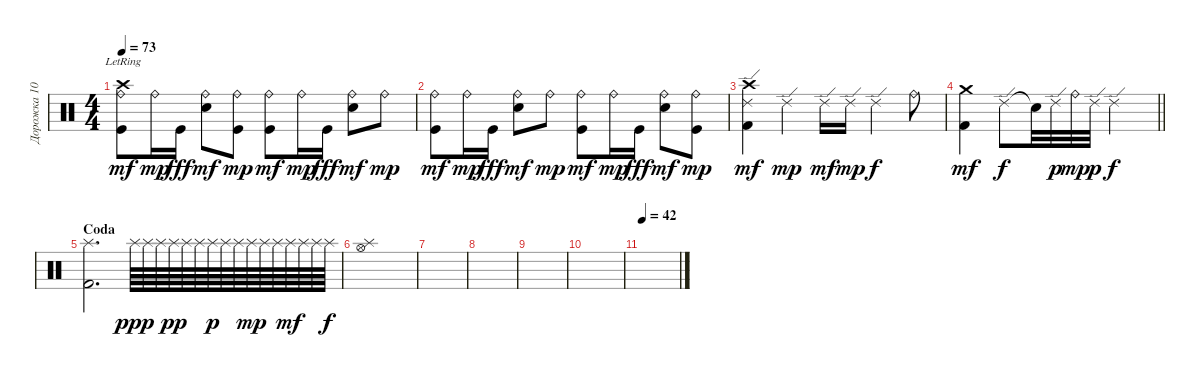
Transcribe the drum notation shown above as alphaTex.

\track ("Дорожка 10" "Дорожка 10") {instrument percussion}
\staff {score}
\articulation defaults
\ts (4 4)
\tempo 73
\clef neutral
\ks c
("Crash high (hit)"{lr} "Kick (hit)" "Ride (bell)").8{dy mf} "Ride (bell)".16{dy mp} "Kick (hit)".16{dy fff} ("Snare (hit) 2" "Ride (bell)").8{dy mf} ("Kick (hit)" "Ride (bell)").8{dy mp} ("Kick (hit)" "Ride (bell)").8{dy mf} "Ride (bell)".16{dy mp} "Kick (hit)".16{dy fff} ("Snare (hit) 2" "Ride (bell)").8{dy mf} "Ride (bell)".8{dy mp} |
("Kick (hit)" "Ride (bell)").8{dy mf} "Ride (bell)".16{dy mp} "Kick (hit)".16{dy fff} ("Snare (hit) 2" "Ride (bell)").8{dy mf} "Ride (bell)".8{dy mp} ("Kick (hit)" "Ride (bell)").8{dy mf} "Ride (bell)".16{dy mp} "Kick (hit)".16{dy fff} ("Snare (hit) 2" "Ride (bell)").8{dy mf} ("Kick (hit)" "Ride (bell)").8{dy mp} |
("Crash high (hit)" "Kick (hit) 2" "Ride (edge) 2").4{dy mf} "Ride (edge) 2".4{dy mp} "Ride (edge) 2".16{dy mf} "Ride (edge) 2".16{dy mp} "Ride (edge) 2".4{dy f} "Ride (bell)".8 |
\barLineRight lightlight
("Kick (hit) 2" "Crash medium (hit)").4{dy mf} "Ride (edge) 2".8{dy f} "Snare (hit)"{t}.32 "Ride (edge) 2".32{dy p} "Ride (bell)".32{dy mp} "Ride (edge) 2".32{dy p} "Ride (edge) 2".2{dy f} |
\section ("" "Coda")
("Splash (hit)" "Kick (hit) 2").2{d} "Splash (hit)".64{dy ppp volume 9} "Splash (hit)".64 "Splash (hit)".64 "Splash (hit)".64{dy pp} "Splash (hit)".64 "Splash (hit)".64 "Splash (hit)".64{dy p} "Splash (hit)".64 "Splash (hit)".64 "Splash (hit)".64{dy mp} "Splash (hit)".64 "Splash (hit)".64 "Splash (hit)".64{dy mf} "Splash (hit)".64 "Splash (hit)".64 "Splash (hit)".64{dy f} |
("Splash (hit)" "Hi-Hat (open)").1 |
|
|
|
|
\tempo 42
